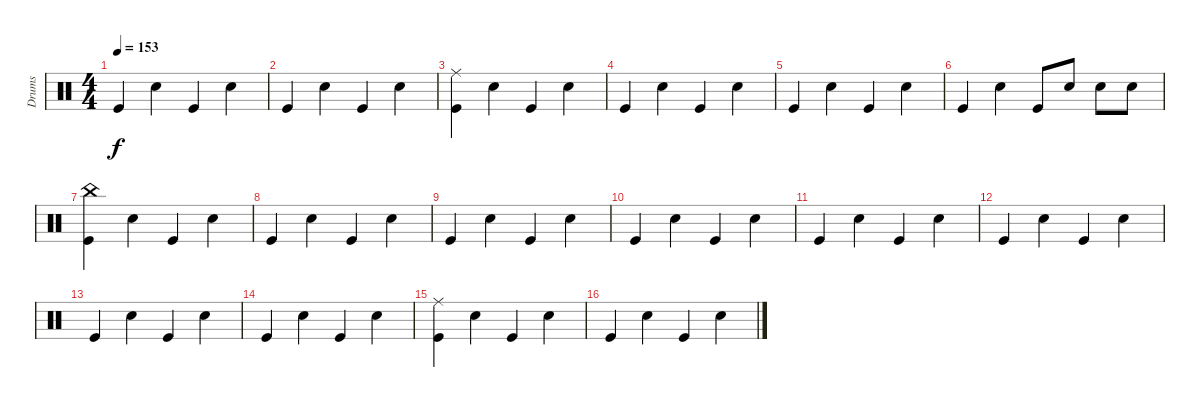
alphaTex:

\track ("Drums" "Drums") {instrument percussion}
\staff {score}
\articulation defaults
\ts (4 4)
\tempo 153
\clef neutral
\ks c "Kick (hit)".4{dy f} "Snare (hit) 2".4 "Kick (hit)".4 "Snare (hit) 2".4
|
"Kick (hit)".4 "Snare (hit) 2".4 "Kick (hit)".4 "Snare (hit) 2".4 |
("Ride (middle)" "Kick (hit)").4 "Snare (hit) 2".4 "Kick (hit)".4 "Snare (hit) 2".4 |
"Kick (hit)".4 "Snare (hit) 2".4 "Kick (hit)".4 "Snare (hit) 2".4 |
"Kick (hit)".4 "Snare (hit) 2".4 "Kick (hit)".4 "Snare (hit) 2".4 |
"Kick (hit)".4 "Snare (hit) 2".4 "Kick (hit)".8 "Snare (hit) 2".8 "Snare (hit) 2".8 "Snare (hit) 2".8 |
("China (hit)" "Kick (hit)").4 "Snare (hit) 2".4 "Kick (hit)".4 "Snare (hit) 2".4 |
"Kick (hit)".4 "Snare (hit) 2".4 "Kick (hit)".4 "Snare (hit) 2".4 |
"Kick (hit)".4 "Snare (hit) 2".4 "Kick (hit)".4 "Snare (hit) 2".4 |
"Kick (hit)".4 "Snare (hit) 2".4 "Kick (hit)".4 "Snare (hit) 2".4 |
"Kick (hit)".4 "Snare (hit) 2".4 "Kick (hit)".4 "Snare (hit) 2".4 |
"Kick (hit)".4 "Snare (hit) 2".4 "Kick (hit)".4 "Snare (hit) 2".4 |
"Kick (hit)".4 "Snare (hit) 2".4 "Kick (hit)".4 "Snare (hit) 2".4 |
"Kick (hit)".4 "Snare (hit) 2".4 "Kick (hit)".4 "Snare (hit) 2".4 |
("Ride (middle)" "Kick (hit)").4 "Snare (hit) 2".4 "Kick (hit)".4 "Snare (hit) 2".4 |
"Kick (hit)".4 "Snare (hit) 2".4 "Kick (hit)".4 "Snare (hit) 2".4
